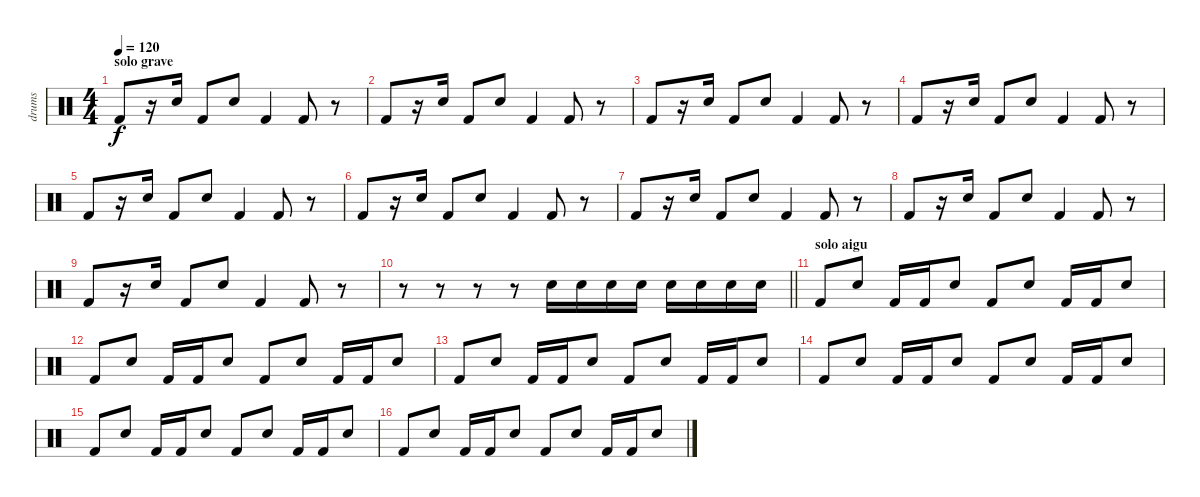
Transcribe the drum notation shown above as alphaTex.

\track ("drums" "drums") {instrument percussion}
\staff {score}
\articulation defaults
\ts (4 4)
\section ("" "solo grave")
\tempo 120
\clef neutral
\ks c "Kick (hit) 2".8{dy f}
r.16 "Snare (hit) 2".16 "Kick (hit) 2".8 "Snare (hit) 2".8 "Kick (hit) 2".4 "Kick (hit) 2".8 r.8 |
"Kick (hit) 2".8 r.16 "Snare (hit) 2".16 "Kick (hit) 2".8 "Snare (hit) 2".8 "Kick (hit) 2".4 "Kick (hit) 2".8 r.8 |
"Kick (hit) 2".8 r.16 "Snare (hit) 2".16 "Kick (hit) 2".8 "Snare (hit) 2".8 "Kick (hit) 2".4 "Kick (hit) 2".8 r.8 |
"Kick (hit) 2".8 r.16 "Snare (hit) 2".16 "Kick (hit) 2".8 "Snare (hit) 2".8 "Kick (hit) 2".4 "Kick (hit) 2".8 r.8 |
"Kick (hit) 2".8 r.16 "Snare (hit) 2".16 "Kick (hit) 2".8 "Snare (hit) 2".8 "Kick (hit) 2".4 "Kick (hit) 2".8 r.8 |
"Kick (hit) 2".8 r.16 "Snare (hit) 2".16 "Kick (hit) 2".8 "Snare (hit) 2".8 "Kick (hit) 2".4 "Kick (hit) 2".8 r.8 |
"Kick (hit) 2".8 r.16 "Snare (hit) 2".16 "Kick (hit) 2".8 "Snare (hit) 2".8 "Kick (hit) 2".4 "Kick (hit) 2".8 r.8 |
"Kick (hit) 2".8 r.16 "Snare (hit) 2".16 "Kick (hit) 2".8 "Snare (hit) 2".8 "Kick (hit) 2".4 "Kick (hit) 2".8 r.8 |
"Kick (hit) 2".8 r.16 "Snare (hit) 2".16 "Kick (hit) 2".8 "Snare (hit) 2".8 "Kick (hit) 2".4 "Kick (hit) 2".8 r.8 |
\barLineRight lightlight
r.8 r.8 r.8 r.8 "Snare (hit) 2".16 "Snare (hit) 2".16 "Snare (hit) 2".16 "Snare (hit) 2".16 "Snare (hit) 2".16 "Snare (hit) 2".16 "Snare (hit) 2".16 "Snare (hit) 2".16 |
\section ("" "solo aigu")
"Kick (hit) 2".8 "Snare (hit) 2".8 "Kick (hit) 2".16 "Kick (hit) 2".16 "Snare (hit) 2".8 "Kick (hit) 2".8 "Snare (hit) 2".8 "Kick (hit) 2".16 "Kick (hit) 2".16 "Snare (hit) 2".8 |
"Kick (hit) 2".8 "Snare (hit) 2".8 "Kick (hit) 2".16 "Kick (hit) 2".16 "Snare (hit) 2".8 "Kick (hit) 2".8 "Snare (hit) 2".8 "Kick (hit) 2".16 "Kick (hit) 2".16 "Snare (hit) 2".8 |
"Kick (hit) 2".8 "Snare (hit) 2".8 "Kick (hit) 2".16 "Kick (hit) 2".16 "Snare (hit) 2".8 "Kick (hit) 2".8 "Snare (hit) 2".8 "Kick (hit) 2".16 "Kick (hit) 2".16 "Snare (hit) 2".8 |
"Kick (hit) 2".8 "Snare (hit) 2".8 "Kick (hit) 2".16 "Kick (hit) 2".16 "Snare (hit) 2".8 "Kick (hit) 2".8 "Snare (hit) 2".8 "Kick (hit) 2".16 "Kick (hit) 2".16 "Snare (hit) 2".8 |
"Kick (hit) 2".8 "Snare (hit) 2".8 "Kick (hit) 2".16 "Kick (hit) 2".16 "Snare (hit) 2".8 "Kick (hit) 2".8 "Snare (hit) 2".8 "Kick (hit) 2".16 "Kick (hit) 2".16 "Snare (hit) 2".8 |
"Kick (hit) 2".8 "Snare (hit) 2".8 "Kick (hit) 2".16 "Kick (hit) 2".16 "Snare (hit) 2".8 "Kick (hit) 2".8 "Snare (hit) 2".8 "Kick (hit) 2".16 "Kick (hit) 2".16 "Snare (hit) 2".8
